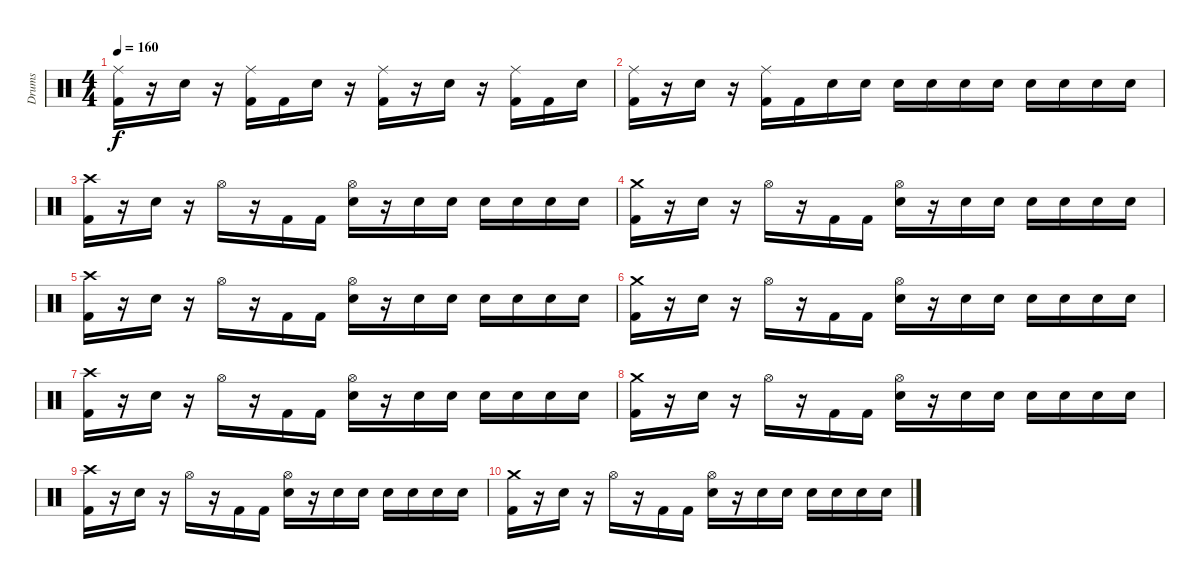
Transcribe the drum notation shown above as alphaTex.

\track ("Drums" "Drums") {instrument percussion}
\staff {score}
\articulation defaults
\ts (4 4)
\tempo 160
\clef neutral
\ks c
("Ride (middle)" "Kick (hit) 2").16{dy f} r.16 "Electric Snare (hit)".16 r.16 ("Ride (middle)" "Kick (hit) 2").16 "Kick (hit) 2".16 "Electric Snare (hit)".16 r.16 ("Ride (middle)" "Kick (hit) 2").16 r.16 "Electric Snare (hit)".16 r.16 ("Ride (middle)" "Kick (hit) 2").16 "Kick (hit) 2".16 "Electric Snare (hit)".16 |
("Ride (middle)" "Kick (hit) 2").16 r.16 "Electric Snare (hit)".16 r.16 ("Ride (middle)" "Kick (hit) 2").16 "Kick (hit) 2".16 "Electric Snare (hit)".16 "Electric Snare (hit)".16 "Electric Snare (hit)".16 "Electric Snare (hit)".16 "Electric Snare (hit)".16 "Electric Snare (hit)".16 "Electric Snare (hit)".16 "Electric Snare (hit)".16 "Electric Snare (hit)".16 "Electric Snare (hit)".16 |
("Crash high (hit)" "Kick (hit) 2").16 r.16 "Electric Snare (hit)".16 r.16 "Hi-Hat (open)".16 r.16 "Kick (hit) 2".16 "Kick (hit) 2".16 ("Hi-Hat (open)" "Electric Snare (hit)").16 r.16 "Electric Snare (hit)".16 "Electric Snare (hit)".16 "Electric Snare (hit)".16 "Electric Snare (hit)".16 "Electric Snare (hit)".16 "Electric Snare (hit)".16 |
("Crash medium (hit)" "Kick (hit) 2").16 r.16 "Electric Snare (hit)".16 r.16 "Hi-Hat (open)".16 r.16 "Kick (hit) 2".16 "Kick (hit) 2".16 ("Hi-Hat (open)" "Electric Snare (hit)").16 r.16 "Electric Snare (hit)".16 "Electric Snare (hit)".16 "Electric Snare (hit)".16 "Electric Snare (hit)".16 "Electric Snare (hit)".16 "Electric Snare (hit)".16 |
("Crash high (hit)" "Kick (hit) 2").16 r.16 "Electric Snare (hit)".16 r.16 "Hi-Hat (open)".16 r.16 "Kick (hit) 2".16 "Kick (hit) 2".16 ("Hi-Hat (open)" "Electric Snare (hit)").16 r.16 "Electric Snare (hit)".16 "Electric Snare (hit)".16 "Electric Snare (hit)".16 "Electric Snare (hit)".16 "Electric Snare (hit)".16 "Electric Snare (hit)".16 |
("Crash medium (hit)" "Kick (hit) 2").16 r.16 "Electric Snare (hit)".16 r.16 "Hi-Hat (open)".16 r.16 "Kick (hit) 2".16 "Kick (hit) 2".16 ("Hi-Hat (open)" "Electric Snare (hit)").16 r.16 "Electric Snare (hit)".16 "Electric Snare (hit)".16 "Electric Snare (hit)".16 "Electric Snare (hit)".16 "Electric Snare (hit)".16 "Electric Snare (hit)".16 |
("Crash high (hit)" "Kick (hit) 2").16 r.16 "Electric Snare (hit)".16 r.16 "Hi-Hat (open)".16 r.16 "Kick (hit) 2".16 "Kick (hit) 2".16 ("Hi-Hat (open)" "Electric Snare (hit)").16 r.16 "Electric Snare (hit)".16 "Electric Snare (hit)".16 "Electric Snare (hit)".16 "Electric Snare (hit)".16 "Electric Snare (hit)".16 "Electric Snare (hit)".16 |
("Crash medium (hit)" "Kick (hit) 2").16 r.16 "Electric Snare (hit)".16 r.16 "Hi-Hat (open)".16 r.16 "Kick (hit) 2".16 "Kick (hit) 2".16 ("Hi-Hat (open)" "Electric Snare (hit)").16 r.16 "Electric Snare (hit)".16 "Electric Snare (hit)".16 "Electric Snare (hit)".16 "Electric Snare (hit)".16 "Electric Snare (hit)".16 "Electric Snare (hit)".16 |
("Crash high (hit)" "Kick (hit) 2").16 r.16 "Electric Snare (hit)".16 r.16 "Hi-Hat (open)".16 r.16 "Kick (hit) 2".16 "Kick (hit) 2".16 ("Hi-Hat (open)" "Electric Snare (hit)").16 r.16 "Electric Snare (hit)".16 "Electric Snare (hit)".16 "Electric Snare (hit)".16 "Electric Snare (hit)".16 "Electric Snare (hit)".16 "Electric Snare (hit)".16 |
("Crash medium (hit)" "Kick (hit) 2").16 r.16 "Electric Snare (hit)".16 r.16 "Hi-Hat (open)".16 r.16 "Kick (hit) 2".16 "Kick (hit) 2".16 ("Hi-Hat (open)" "Electric Snare (hit)").16 r.16 "Electric Snare (hit)".16 "Electric Snare (hit)".16 "Electric Snare (hit)".16 "Electric Snare (hit)".16 "Electric Snare (hit)".16 "Electric Snare (hit)".16
